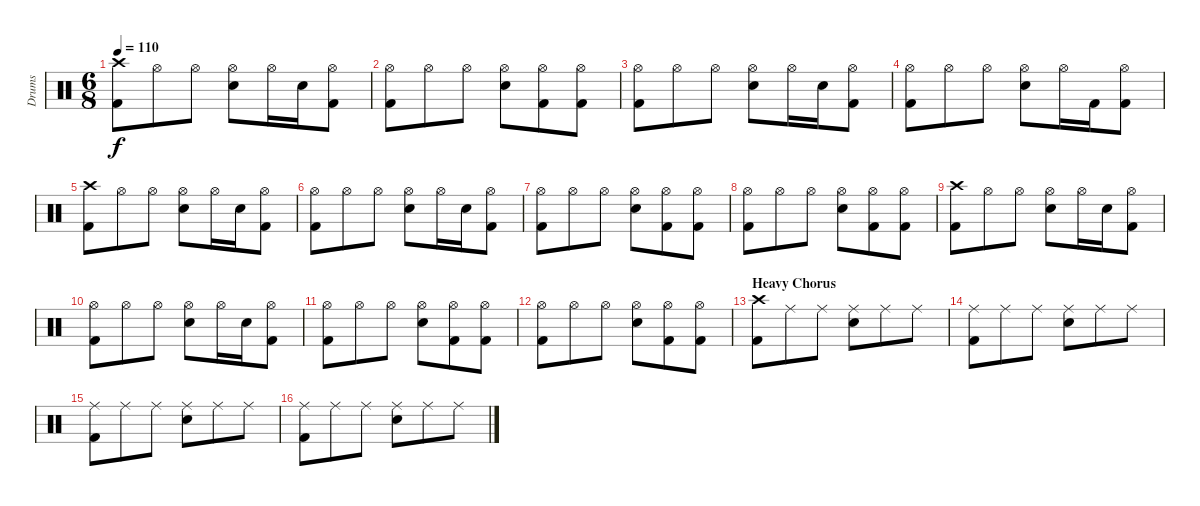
\track ("Drums" "Drums") {instrument percussion}
\staff {score}
\articulation defaults
\ts (6 8)
\tempo 110
\clef neutral
\ks c
("Crash high (hit)" "Kick (hit) 2").8{dy f} "Hi-Hat (open)".8 "Hi-Hat (open)".8 ("Hi-Hat (open)" "Electric Snare (hit)").8 "Hi-Hat (open)".16 "Electric Snare (hit)".16 ("Hi-Hat (open)" "Kick (hit) 2").8 |
("Hi-Hat (open)" "Kick (hit) 2").8 "Hi-Hat (open)".8 "Hi-Hat (open)".8 ("Hi-Hat (open)" "Electric Snare (hit)").8 ("Hi-Hat (open)" "Kick (hit) 2").8 ("Hi-Hat (open)" "Kick (hit) 2").8 |
("Hi-Hat (open)" "Kick (hit) 2").8 "Hi-Hat (open)".8 "Hi-Hat (open)".8 ("Hi-Hat (open)" "Electric Snare (hit)").8 "Hi-Hat (open)".16 "Electric Snare (hit)".16 ("Hi-Hat (open)" "Kick (hit) 2").8 |
("Hi-Hat (open)" "Kick (hit) 2").8 "Hi-Hat (open)".8 "Hi-Hat (open)".8 ("Hi-Hat (open)" "Electric Snare (hit)").8 "Hi-Hat (open)".16 "Kick (hit) 2".16 ("Hi-Hat (open)" "Kick (hit) 2").8 |
("Crash high (hit)" "Kick (hit) 2").8 "Hi-Hat (open)".8 "Hi-Hat (open)".8 ("Hi-Hat (open)" "Electric Snare (hit)").8 "Hi-Hat (open)".16 "Electric Snare (hit)".16 ("Hi-Hat (open)" "Kick (hit) 2").8 |
("Hi-Hat (open)" "Kick (hit) 2").8 "Hi-Hat (open)".8 "Hi-Hat (open)".8 ("Hi-Hat (open)" "Electric Snare (hit)").8 "Hi-Hat (open)".16 "Electric Snare (hit)".16 ("Hi-Hat (open)" "Kick (hit) 2").8 |
("Hi-Hat (open)" "Kick (hit) 2").8 "Hi-Hat (open)".8 "Hi-Hat (open)".8 ("Hi-Hat (open)" "Electric Snare (hit)").8 ("Hi-Hat (open)" "Kick (hit) 2").8 ("Hi-Hat (open)" "Kick (hit) 2").8 |
("Hi-Hat (open)" "Kick (hit) 2").8 "Hi-Hat (open)".8 "Hi-Hat (open)".8 ("Hi-Hat (open)" "Electric Snare (hit)").8 ("Hi-Hat (open)" "Kick (hit) 2").8 ("Hi-Hat (open)" "Kick (hit) 2").8 |
("Crash high (hit)" "Kick (hit) 2").8 "Hi-Hat (open)".8 "Hi-Hat (open)".8 ("Hi-Hat (open)" "Electric Snare (hit)").8 "Hi-Hat (open)".16 "Electric Snare (hit)".16 ("Hi-Hat (open)" "Kick (hit) 2").8 |
("Hi-Hat (open)" "Kick (hit) 2").8 "Hi-Hat (open)".8 "Hi-Hat (open)".8 ("Hi-Hat (open)" "Electric Snare (hit)").8 "Hi-Hat (open)".16 "Electric Snare (hit)".16 ("Hi-Hat (open)" "Kick (hit) 2").8 |
("Hi-Hat (open)" "Kick (hit) 2").8 "Hi-Hat (open)".8 "Hi-Hat (open)".8 ("Hi-Hat (open)" "Electric Snare (hit)").8 ("Hi-Hat (open)" "Kick (hit) 2").8 ("Hi-Hat (open)" "Kick (hit) 2").8 |
("Hi-Hat (open)" "Kick (hit) 2").8 "Hi-Hat (open)".8 "Hi-Hat (open)".8 ("Hi-Hat (open)" "Electric Snare (hit)").8 ("Hi-Hat (open)" "Kick (hit) 2").8 ("Hi-Hat (open)" "Kick (hit) 2").8 |
\section ("" "Heavy Chorus")
("Crash high (hit)" "Kick (hit) 2").8 "Ride (middle)".8 "Ride (middle)".8 ("Ride (middle)" "Electric Snare (hit)").8 "Ride (middle)".8 "Ride (middle)".8 |
("Ride (middle)" "Kick (hit) 2").8 "Ride (middle)".8 "Ride (middle)".8 ("Ride (middle)" "Electric Snare (hit)").8 "Ride (middle)".8 "Ride (middle)".8 |
("Ride (middle)" "Kick (hit) 2").8 "Ride (middle)".8 "Ride (middle)".8 ("Ride (middle)" "Electric Snare (hit)").8 "Ride (middle)".8 "Ride (middle)".8 |
("Ride (middle)" "Kick (hit) 2").8 "Ride (middle)".8 "Ride (middle)".8 ("Ride (middle)" "Electric Snare (hit)").8 "Ride (middle)".8 "Ride (middle)".8
